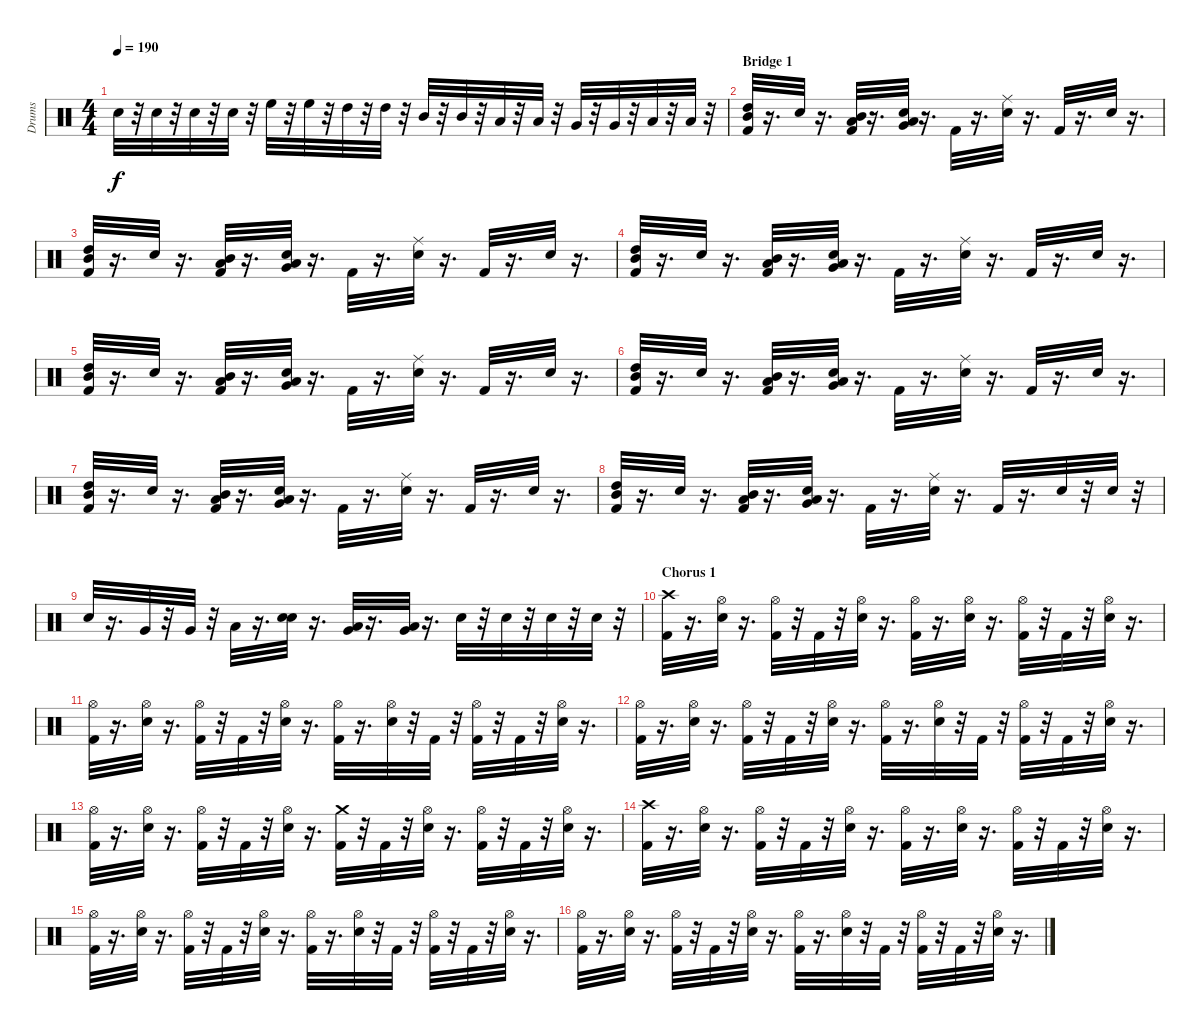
\track ("Drums" "Drums") {instrument percussion}
\staff {score}
\articulation defaults
\ts (4 4)
\tempo 190
\clef neutral
\ks c "Snare (hit) 2".32{dy f}
r.32 "Snare (hit) 2".32 r.32 "Snare (hit) 2".32 r.32 "Snare (hit) 2".32 r.32 "High Floor Tom (hit)".32 r.32 "High Floor Tom (hit)".32 r.32 "High Tom (hit)".32 r.32 "High Tom (hit)".32 r.32 "Mid Tom (hit)".32 r.32 "Mid Tom (hit)".32 r.32 "Low Tom (hit)".32 r.32 "Low Tom (hit)".32 r.32 "Very Low Tom (hit)".32 r.32 "Very Low Tom (hit)".32 r.32 "Low Floor Tom (hit)".32 r.32 "Low Floor Tom (hit)".32 r.32 |
\section ("" "Bridge 1")
("Mid Tom (hit)" "High Tom (hit)" "Kick (hit) 2").32 r.16{d} "Snare (hit) 2".32 r.16{d} ("Mid Tom (hit)" "Kick (hit) 2" "Low Tom (hit)").32 r.16{d} ("Low Tom (hit)" "Very Low Tom (hit)" "Snare (hit) 2").32 r.16{d} "Kick (hit) 2".32 r.16{d} ("Snare (hit) 2" "Ride (middle)").32 r.16{d} "Kick (hit) 2".32 r.16{d} "Snare (hit) 2".32 r.16{d} |
("Mid Tom (hit)" "High Tom (hit)" "Kick (hit) 2").32 r.16{d} "Snare (hit) 2".32 r.16{d} ("Mid Tom (hit)" "Kick (hit) 2" "Low Tom (hit)").32 r.16{d} ("Very Low Tom (hit)" "Snare (hit) 2" "Low Tom (hit)").32 r.16{d} "Kick (hit) 2".32 r.16{d} ("Ride (middle)" "Snare (hit) 2").32 r.16{d} "Kick (hit) 2".32 r.16{d} "Snare (hit) 2".32 r.16{d} |
("Kick (hit) 2" "Mid Tom (hit)" "High Tom (hit)").32 r.16{d} "Snare (hit) 2".32 r.16{d} ("Kick (hit) 2" "Low Tom (hit)" "Mid Tom (hit)").32 r.16{d} ("Low Tom (hit)" "Very Low Tom (hit)" "Snare (hit) 2").32 r.16{d} "Kick (hit) 2".32 r.16{d} ("Snare (hit) 2" "Ride (middle)").32 r.16{d} "Kick (hit) 2".32 r.16{d} "Snare (hit) 2".32 r.16{d} |
("Kick (hit) 2" "Mid Tom (hit)" "High Tom (hit)").32 r.16{d} "Snare (hit) 2".32 r.16{d} ("Low Tom (hit)" "Mid Tom (hit)" "Kick (hit) 2").32 r.16{d} ("Low Tom (hit)" "Snare (hit) 2" "Very Low Tom (hit)").32 r.16{d} "Kick (hit) 2".32 r.16{d} ("Snare (hit) 2" "Ride (middle)").32 r.16{d} "Kick (hit) 2".32 r.16{d} "Snare (hit) 2".32 r.16{d} |
("Mid Tom (hit)" "High Tom (hit)" "Kick (hit) 2").32 r.16{d} "Snare (hit) 2".32 r.16{d} ("Mid Tom (hit)" "Low Tom (hit)" "Kick (hit) 2").32 r.16{d} ("Very Low Tom (hit)" "Low Tom (hit)" "Snare (hit) 2").32 r.16{d} "Kick (hit) 2".32 r.16{d} ("Snare (hit) 2" "Ride (middle)").32 r.16{d} "Kick (hit) 2".32 r.16{d} "Snare (hit) 2".32 r.16{d} |
("High Tom (hit)" "Kick (hit) 2" "Mid Tom (hit)").32 r.16{d} "Snare (hit) 2".32 r.16{d} ("Mid Tom (hit)" "Low Tom (hit)" "Kick (hit) 2").32 r.16{d} ("Very Low Tom (hit)" "Snare (hit) 2" "Low Tom (hit)").32 r.16{d} "Kick (hit) 2".32 r.16{d} ("Ride (middle)" "Snare (hit) 2").32 r.16{d} "Kick (hit) 2".32 r.16{d} "Snare (hit) 2".32 r.16{d} |
("High Tom (hit)" "Kick (hit) 2" "Mid Tom (hit)").32 r.16{d} "Snare (hit) 2".32 r.16{d} ("Kick (hit) 2" "Low Tom (hit)" "Mid Tom (hit)").32 r.16{d} ("Very Low Tom (hit)" "Snare (hit) 2" "Low Tom (hit)").32 r.16{d} "Kick (hit) 2".32 r.16{d} ("Ride (middle)" "Snare (hit) 2").32 r.16{d} "Kick (hit) 2".32 r.16{d} "Snare (hit) 2".32 r.32 "Snare (hit) 2".32 r.32 |
"Snare (hit) 2".32 r.16{d} "Very Low Tom (hit)".32 r.32 "Very Low Tom (hit)".32 r.32 "Low Floor Tom (hit)".32 r.16{d} ("Electric Snare (hit)" "Snare (hit) 2").32 r.16{d} ("Very Low Tom (hit)" "Low Floor Tom (hit)").32 r.16{d} ("Very Low Tom (hit)" "Low Floor Tom (hit)").32 r.16{d} "Snare (hit) 2".32 r.32 "Snare (hit) 2".32 r.32 "Snare (hit) 2".32 r.32 "Snare (hit) 2".32 r.32 |
\section ("" "Chorus 1")
("Crash high (hit)" "Kick (hit) 2").32 r.16{d} ("Hi-Hat (open)" "Snare (hit) 2").32 r.16{d} ("Kick (hit) 2" "Hi-Hat (open)").32 r.32 "Kick (hit) 2".32 r.32 ("Hi-Hat (open)" "Snare (hit) 2").32 r.16{d} ("Hi-Hat (open)" "Kick (hit) 2").32 r.16{d} ("Snare (hit) 2" "Hi-Hat (open)").32 r.16{d} ("Kick (hit) 2" "Hi-Hat (open)").32 r.32 "Kick (hit) 2".32 r.32 ("Snare (hit) 2" "Hi-Hat (open)").32 r.16{d} |
("Hi-Hat (open)" "Kick (hit) 2").32 r.16{d} ("Snare (hit) 2" "Hi-Hat (open)").32 r.16{d} ("Kick (hit) 2" "Hi-Hat (open)").32 r.32 "Kick (hit) 2".32 r.32 ("Hi-Hat (open)" "Snare (hit) 2").32 r.16{d} ("Kick (hit) 2" "Hi-Hat (open)").32 r.16{d} ("Hi-Hat (open)" "Snare (hit) 2").32 r.32 "Kick (hit) 2".32 r.32 ("Kick (hit) 2" "Hi-Hat (open)").32 r.32 "Kick (hit) 2".32 r.32 ("Hi-Hat (open)" "Snare (hit) 2").32 r.16{d} |
("Kick (hit) 2" "Hi-Hat (open)").32 r.16{d} ("Hi-Hat (open)" "Snare (hit) 2").32 r.16{d} ("Hi-Hat (open)" "Kick (hit) 2").32 r.32 "Kick (hit) 2".32 r.32 ("Hi-Hat (open)" "Snare (hit) 2").32 r.16{d} ("Hi-Hat (open)" "Kick (hit) 2").32 r.16{d} ("Hi-Hat (open)" "Snare (hit) 2").32 r.32 "Kick (hit) 2".32 r.32 ("Hi-Hat (open)" "Kick (hit) 2").32 r.32 "Kick (hit) 2".32 r.32 ("Hi-Hat (open)" "Snare (hit) 2").32 r.16{d} |
("Hi-Hat (open)" "Kick (hit) 2").32 r.16{d} ("Snare (hit) 2" "Hi-Hat (open)").32 r.16{d} ("Kick (hit) 2" "Hi-Hat (open)").32 r.32 "Kick (hit) 2".32 r.32 ("Hi-Hat (open)" "Snare (hit) 2").32 r.16{d} ("Crash medium (hit)" "Kick (hit) 2").32 r.32 "Kick (hit) 2".32 r.32 ("Hi-Hat (open)" "Snare (hit) 2").32 r.16{d} ("Hi-Hat (open)" "Kick (hit) 2").32 r.32 "Kick (hit) 2".32 r.32 ("Snare (hit) 2" "Hi-Hat (open)").32 r.16{d} |
("Kick (hit) 2" "Crash high (hit)").32 r.16{d} ("Snare (hit) 2" "Hi-Hat (open)").32 r.16{d} ("Hi-Hat (open)" "Kick (hit) 2").32 r.32 "Kick (hit) 2".32 r.32 ("Snare (hit) 2" "Hi-Hat (open)").32 r.16{d} ("Kick (hit) 2" "Hi-Hat (open)").32 r.16{d} ("Snare (hit) 2" "Hi-Hat (open)").32 r.16{d} ("Kick (hit) 2" "Hi-Hat (open)").32 r.32 "Kick (hit) 2".32 r.32 ("Snare (hit) 2" "Hi-Hat (open)").32 r.16{d} |
("Kick (hit) 2" "Hi-Hat (open)").32 r.16{d} ("Hi-Hat (open)" "Snare (hit) 2").32 r.16{d} ("Kick (hit) 2" "Hi-Hat (open)").32 r.32 "Kick (hit) 2".32 r.32 ("Hi-Hat (open)" "Snare (hit) 2").32 r.16{d} ("Hi-Hat (open)" "Kick (hit) 2").32 r.16{d} ("Hi-Hat (open)" "Snare (hit) 2").32 r.32 "Kick (hit) 2".32 r.32 ("Kick (hit) 2" "Hi-Hat (open)").32 r.32 "Kick (hit) 2".32 r.32 ("Hi-Hat (open)" "Snare (hit) 2").32 r.16{d} |
("Hi-Hat (open)" "Kick (hit) 2").32 r.16{d} ("Hi-Hat (open)" "Snare (hit) 2").32 r.16{d} ("Hi-Hat (open)" "Kick (hit) 2").32 r.32 "Kick (hit) 2".32 r.32 ("Snare (hit) 2" "Hi-Hat (open)").32 r.16{d} ("Hi-Hat (open)" "Kick (hit) 2").32 r.16{d} ("Hi-Hat (open)" "Snare (hit) 2").32 r.32 "Kick (hit) 2".32 r.32 ("Hi-Hat (open)" "Kick (hit) 2").32 r.32 "Kick (hit) 2".32 r.32 ("Hi-Hat (open)" "Snare (hit) 2").32 r.16{d}
